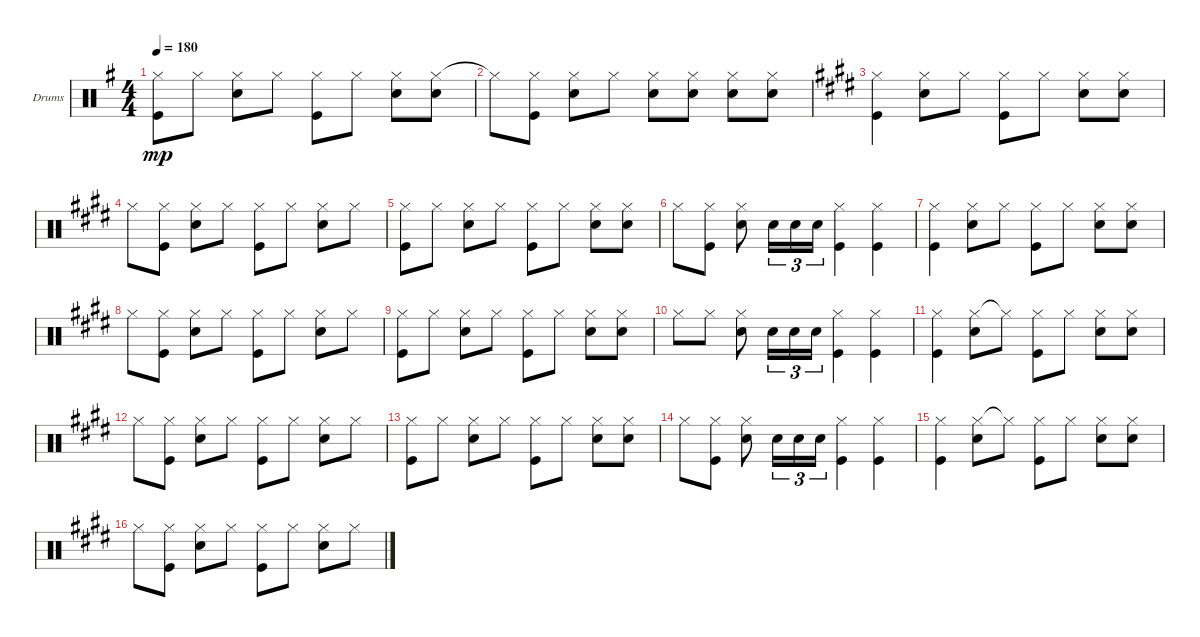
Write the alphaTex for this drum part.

\defaultSystemsLayout 4
\bracketExtendMode groupsimilarinstruments
\firstSystemTrackNameOrientation horizontal
\otherSystemsTrackNameOrientation horizontal
\track ("Drumkit" "Drums") {instrument percussion}
\staff {score}
\articulation defaults
\ts (4 4)
\tempo 180
\clef neutral
\ks g
("Hi-Hat (closed)"{t} "Kick (hit)").8{dy mp} "Hi-Hat (closed)".8 ("Hi-Hat (closed)" "Snare (hit) 2").8 "Hi-Hat (closed)".8 ("Hi-Hat (closed)" "Kick (hit)").8 "Hi-Hat (closed)".8 ("Hi-Hat (closed)" "Snare (hit) 2").8 ("Hi-Hat (closed)" "Snare (hit) 2").8 |
"Hi-Hat (closed)"{t}.8 ("Hi-Hat (closed)" "Kick (hit)").8 ("Hi-Hat (closed)" "Snare (hit) 2").8 "Hi-Hat (closed)".8 ("Hi-Hat (closed)" "Snare (hit) 2").8 ("Hi-Hat (closed)" "Snare (hit) 2").8 ("Hi-Hat (closed)" "Snare (hit) 2").8 ("Snare (hit) 2" "Hi-Hat (closed)").8 |
\ks c#minor
("Hi-Hat (closed)" "Kick (hit)").4 ("Snare (hit) 2" "Hi-Hat (closed)").8 "Hi-Hat (closed)".8 ("Hi-Hat (closed)" "Kick (hit)").8 "Hi-Hat (closed)".8 ("Hi-Hat (closed)" "Snare (hit) 2").8 ("Snare (hit) 2" "Hi-Hat (closed)").8 |
"Hi-Hat (closed)".8 ("Hi-Hat (closed)" "Kick (hit)").8 ("Hi-Hat (closed)" "Snare (hit) 2").8 "Hi-Hat (closed)".8 ("Hi-Hat (closed)" "Kick (hit)").8 "Hi-Hat (closed)".8 ("Hi-Hat (closed)" "Snare (hit) 2").8 "Hi-Hat (closed)".8 |
("Hi-Hat (closed)" "Kick (hit)").8 "Hi-Hat (closed)".8 ("Hi-Hat (closed)" "Snare (hit) 2").8 "Hi-Hat (closed)".8 ("Hi-Hat (closed)" "Kick (hit)").8 "Hi-Hat (closed)".8 ("Hi-Hat (closed)" "Snare (hit) 2").8 ("Hi-Hat (closed)" "Snare (hit) 2").8 |
"Hi-Hat (closed)".8 ("Hi-Hat (closed)" "Kick (hit)").8 ("Hi-Hat (closed)" "Snare (hit) 2").8 "Snare (hit) 2".16{tu (3 2)} "Snare (hit) 2".16{tu (3 2)} "Snare (hit) 2".16{tu (3 2)} ("Hi-Hat (closed)" "Kick (hit)").4 ("Kick (hit)" "Hi-Hat (closed)").4 |
("Hi-Hat (closed)" "Kick (hit)").4 ("Snare (hit) 2" "Hi-Hat (closed)").8 "Hi-Hat (closed)".8 ("Hi-Hat (closed)" "Kick (hit)").8 "Hi-Hat (closed)".8 ("Hi-Hat (closed)" "Snare (hit) 2").8 ("Hi-Hat (closed)" "Snare (hit) 2").8 |
"Hi-Hat (closed)".8 ("Hi-Hat (closed)" "Kick (hit)").8 ("Snare (hit) 2" "Hi-Hat (closed)").8 "Hi-Hat (closed)".8 ("Hi-Hat (closed)" "Kick (hit)").8 "Hi-Hat (closed)".8 ("Hi-Hat (closed)" "Snare (hit) 2").8 "Hi-Hat (closed)".8 |
("Hi-Hat (closed)" "Kick (hit)").8 "Hi-Hat (closed)".8 ("Hi-Hat (closed)" "Snare (hit) 2").8 "Hi-Hat (closed)".8 ("Hi-Hat (closed)" "Kick (hit)").8 "Hi-Hat (closed)".8 ("Hi-Hat (closed)" "Snare (hit) 2").8 ("Snare (hit) 2" "Hi-Hat (closed)").8 |
"Hi-Hat (closed)".8 "Hi-Hat (closed)".8 ("Hi-Hat (closed)" "Snare (hit) 2").8 "Snare (hit) 2".16{tu (3 2)} "Snare (hit) 2".16{tu (3 2)} "Snare (hit) 2".16{tu (3 2)} ("Hi-Hat (closed)" "Kick (hit)").4 ("Kick (hit)" "Hi-Hat (closed)").4 |
("Hi-Hat (closed)" "Kick (hit)").4 ("Hi-Hat (closed)" "Snare (hit) 2").8 "Hi-Hat (closed)"{t}.8 ("Hi-Hat (closed)" "Kick (hit)").8 "Hi-Hat (closed)".8 ("Hi-Hat (closed)" "Snare (hit) 2").8 ("Snare (hit) 2" "Hi-Hat (closed)").8 |
"Hi-Hat (closed)".8 ("Hi-Hat (closed)" "Kick (hit)").8 ("Hi-Hat (closed)" "Snare (hit) 2").8 "Hi-Hat (closed)".8 ("Hi-Hat (closed)" "Kick (hit)").8 "Hi-Hat (closed)".8 ("Hi-Hat (closed)" "Snare (hit) 2").8 "Hi-Hat (closed)".8 |
("Hi-Hat (closed)" "Kick (hit)").8 "Hi-Hat (closed)".8 ("Hi-Hat (closed)" "Snare (hit) 2").8 "Hi-Hat (closed)".8 ("Hi-Hat (closed)" "Kick (hit)").8 "Hi-Hat (closed)".8 ("Hi-Hat (closed)" "Snare (hit) 2").8 ("Hi-Hat (closed)" "Snare (hit) 2").8 |
"Hi-Hat (closed)".8 ("Hi-Hat (closed)" "Kick (hit)").8 ("Hi-Hat (closed)" "Snare (hit) 2").8 "Snare (hit) 2".16{tu (3 2)} "Snare (hit) 2".16{tu (3 2)} "Snare (hit) 2".16{tu (3 2)} ("Hi-Hat (closed)" "Kick (hit)").4 ("Kick (hit)" "Hi-Hat (closed)").4 |
("Hi-Hat (closed)" "Kick (hit)").4 ("Hi-Hat (closed)" "Snare (hit) 2").8 "Hi-Hat (closed)"{t}.8 ("Hi-Hat (closed)" "Kick (hit)").8 "Hi-Hat (closed)".8 ("Hi-Hat (closed)" "Snare (hit) 2").8 ("Hi-Hat (closed)" "Snare (hit) 2").8 |
"Hi-Hat (closed)".8 ("Hi-Hat (closed)" "Kick (hit)").8 ("Hi-Hat (closed)" "Snare (hit) 2").8 "Hi-Hat (closed)".8 ("Kick (hit)" "Hi-Hat (closed)").8 "Hi-Hat (closed)".8 ("Hi-Hat (closed)" "Snare (hit) 2").8 "Hi-Hat (closed)".8
